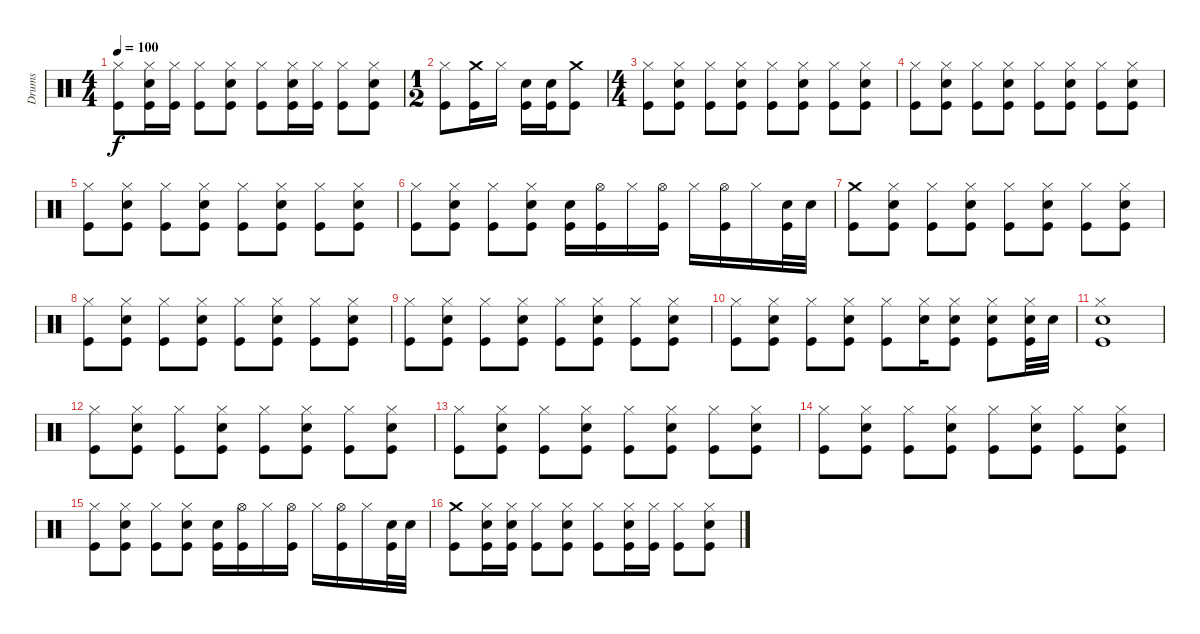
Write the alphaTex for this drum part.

\track ("Drums" "Drums") {instrument percussion}
\staff {score}
\articulation defaults
\ts (4 4)
\tempo 100
\clef neutral
\ks c
("Hi-Hat (closed)" "Kick (hit)").8{dy f} ("Electric Snare (hit)" "Hi-Hat (closed)" "Kick (hit)").16 ("Hi-Hat (closed)" "Kick (hit)").16 ("Hi-Hat (closed)" "Kick (hit)").8 ("Electric Snare (hit)" "Hi-Hat (closed)" "Kick (hit)").8 ("Hi-Hat (closed)" "Kick (hit)").8 ("Electric Snare (hit)" "Hi-Hat (closed)" "Kick (hit)").16 ("Hi-Hat (closed)" "Kick (hit)").16 ("Hi-Hat (closed)" "Kick (hit)").8 ("Electric Snare (hit)" "Hi-Hat (closed)" "Kick (hit)").8 |
\ts (1 2)
("Hi-Hat (closed)" "Kick (hit)").8 ("Crash medium (hit)" "Kick (hit)").16 "Hi-Hat (closed)".16 ("Electric Snare (hit)" "Kick (hit)").16 ("Electric Snare (hit)" "Kick (hit)").16 ("Crash medium (hit)" "Kick (hit)").8 |
\ts (4 4)
("Hi-Hat (closed)" "Kick (hit)").8 ("Electric Snare (hit)" "Hi-Hat (closed)" "Kick (hit)").8 ("Hi-Hat (closed)" "Kick (hit)").8 ("Electric Snare (hit)" "Hi-Hat (closed)" "Kick (hit)").8 ("Hi-Hat (closed)" "Kick (hit)").8 ("Electric Snare (hit)" "Hi-Hat (closed)" "Kick (hit)").8 ("Hi-Hat (closed)" "Kick (hit)").8 ("Electric Snare (hit)" "Hi-Hat (closed)" "Kick (hit)").8 |
("Hi-Hat (closed)" "Kick (hit)").8 ("Electric Snare (hit)" "Hi-Hat (closed)" "Kick (hit)").8 ("Hi-Hat (closed)" "Kick (hit)").8 ("Electric Snare (hit)" "Hi-Hat (closed)" "Kick (hit)").8 ("Hi-Hat (closed)" "Kick (hit)").8 ("Electric Snare (hit)" "Hi-Hat (closed)" "Kick (hit)").8 ("Hi-Hat (closed)" "Kick (hit)").8 ("Electric Snare (hit)" "Hi-Hat (closed)" "Kick (hit)").8 |
("Hi-Hat (closed)" "Kick (hit)").8 ("Electric Snare (hit)" "Hi-Hat (closed)" "Kick (hit)").8 ("Hi-Hat (closed)" "Kick (hit)").8 ("Electric Snare (hit)" "Hi-Hat (closed)" "Kick (hit)").8 ("Hi-Hat (closed)" "Kick (hit)").8 ("Electric Snare (hit)" "Hi-Hat (closed)" "Kick (hit)").8 ("Hi-Hat (closed)" "Kick (hit)").8 ("Electric Snare (hit)" "Hi-Hat (closed)" "Kick (hit)").8 |
("Hi-Hat (closed)" "Kick (hit)").8 ("Electric Snare (hit)" "Hi-Hat (closed)" "Kick (hit)").8 ("Hi-Hat (closed)" "Kick (hit)").8 ("Electric Snare (hit)" "Hi-Hat (closed)" "Kick (hit)").8 ("Electric Snare (hit)" "Kick (hit)").16 ("Hi-Hat (open)" "Kick (hit)").16 "Hi-Hat (closed)".16 ("Hi-Hat (open)" "Kick (hit)").16 "Hi-Hat (closed)".16 ("Hi-Hat (open)" "Kick (hit)").16 "Hi-Hat (closed)".16 ("Electric Snare (hit)" "Kick (hit)").32 "Electric Snare (hit)".32 |
("Crash medium (hit)" "Kick (hit)").8 ("Electric Snare (hit)" "Hi-Hat (closed)" "Kick (hit)").8 ("Hi-Hat (closed)" "Kick (hit)").8 ("Electric Snare (hit)" "Hi-Hat (closed)" "Kick (hit)").8 ("Hi-Hat (closed)" "Kick (hit)").8 ("Electric Snare (hit)" "Hi-Hat (closed)" "Kick (hit)").8 ("Hi-Hat (closed)" "Kick (hit)").8 ("Electric Snare (hit)" "Hi-Hat (closed)" "Kick (hit)").8 |
("Hi-Hat (closed)" "Kick (hit)").8 ("Electric Snare (hit)" "Hi-Hat (closed)" "Kick (hit)").8 ("Hi-Hat (closed)" "Kick (hit)").8 ("Electric Snare (hit)" "Hi-Hat (closed)" "Kick (hit)").8 ("Hi-Hat (closed)" "Kick (hit)").8 ("Electric Snare (hit)" "Hi-Hat (closed)" "Kick (hit)").8 ("Hi-Hat (closed)" "Kick (hit)").8 ("Electric Snare (hit)" "Hi-Hat (closed)" "Kick (hit)").8 |
("Hi-Hat (closed)" "Kick (hit)").8 ("Electric Snare (hit)" "Hi-Hat (closed)" "Kick (hit)").8 ("Hi-Hat (closed)" "Kick (hit)").8 ("Electric Snare (hit)" "Hi-Hat (closed)" "Kick (hit)").8 ("Hi-Hat (closed)" "Kick (hit)").8 ("Electric Snare (hit)" "Hi-Hat (closed)" "Kick (hit)").8 ("Hi-Hat (closed)" "Kick (hit)").8 ("Electric Snare (hit)" "Hi-Hat (closed)" "Kick (hit)").8 |
("Hi-Hat (closed)" "Kick (hit)").8 ("Electric Snare (hit)" "Hi-Hat (closed)" "Kick (hit)").8 ("Hi-Hat (closed)" "Kick (hit)").8 ("Electric Snare (hit)" "Hi-Hat (closed)" "Kick (hit)").8 ("Hi-Hat (closed)" "Kick (hit)").8 ("Electric Snare (hit)" "Hi-Hat (closed)").16 ("Electric Snare (hit)" "Hi-Hat (closed)" "Kick (hit)").8 ("Electric Snare (hit)" "Hi-Hat (closed)" "Kick (hit)").8 ("Electric Snare (hit)" "Hi-Hat (closed)" "Kick (hit)").32 "Electric Snare (hit)".32 |
("Electric Snare (hit)" "Hi-Hat (closed)" "Kick (hit)").1 |
("Hi-Hat (closed)" "Kick (hit)").8 ("Electric Snare (hit)" "Hi-Hat (closed)" "Kick (hit)").8 ("Hi-Hat (closed)" "Kick (hit)").8 ("Electric Snare (hit)" "Hi-Hat (closed)" "Kick (hit)").8 ("Hi-Hat (closed)" "Kick (hit)").8 ("Electric Snare (hit)" "Hi-Hat (closed)" "Kick (hit)").8 ("Hi-Hat (closed)" "Kick (hit)").8 ("Electric Snare (hit)" "Hi-Hat (closed)" "Kick (hit)").8 |
("Hi-Hat (closed)" "Kick (hit)").8 ("Electric Snare (hit)" "Hi-Hat (closed)" "Kick (hit)").8 ("Hi-Hat (closed)" "Kick (hit)").8 ("Electric Snare (hit)" "Hi-Hat (closed)" "Kick (hit)").8 ("Hi-Hat (closed)" "Kick (hit)").8 ("Electric Snare (hit)" "Hi-Hat (closed)" "Kick (hit)").8 ("Hi-Hat (closed)" "Kick (hit)").8 ("Electric Snare (hit)" "Hi-Hat (closed)" "Kick (hit)").8 |
("Hi-Hat (closed)" "Kick (hit)").8 ("Electric Snare (hit)" "Hi-Hat (closed)" "Kick (hit)").8 ("Hi-Hat (closed)" "Kick (hit)").8 ("Electric Snare (hit)" "Hi-Hat (closed)" "Kick (hit)").8 ("Hi-Hat (closed)" "Kick (hit)").8 ("Electric Snare (hit)" "Hi-Hat (closed)" "Kick (hit)").8 ("Hi-Hat (closed)" "Kick (hit)").8 ("Electric Snare (hit)" "Hi-Hat (closed)" "Kick (hit)").8 |
("Hi-Hat (closed)" "Kick (hit)").8 ("Electric Snare (hit)" "Hi-Hat (closed)" "Kick (hit)").8 ("Hi-Hat (closed)" "Kick (hit)").8 ("Electric Snare (hit)" "Hi-Hat (closed)" "Kick (hit)").8 ("Electric Snare (hit)" "Kick (hit)").16 ("Hi-Hat (open)" "Kick (hit)").16 "Hi-Hat (closed)".16 ("Hi-Hat (open)" "Kick (hit)").16 "Hi-Hat (closed)".16 ("Hi-Hat (open)" "Kick (hit)").16 "Hi-Hat (closed)".16 ("Electric Snare (hit)" "Kick (hit)").32 "Electric Snare (hit)".32 |
("Crash medium (hit)" "Kick (hit)").8 ("Electric Snare (hit)" "Hi-Hat (closed)" "Kick (hit)").16 ("Electric Snare (hit)" "Hi-Hat (closed)" "Kick (hit)").16 ("Hi-Hat (closed)" "Kick (hit)").8 ("Electric Snare (hit)" "Hi-Hat (closed)" "Kick (hit)").8 ("Hi-Hat (closed)" "Kick (hit)").8 ("Electric Snare (hit)" "Hi-Hat (closed)" "Kick (hit)").16 ("Hi-Hat (closed)" "Kick (hit)").16 ("Hi-Hat (closed)" "Kick (hit)").8 ("Electric Snare (hit)" "Hi-Hat (closed)" "Kick (hit)").8
